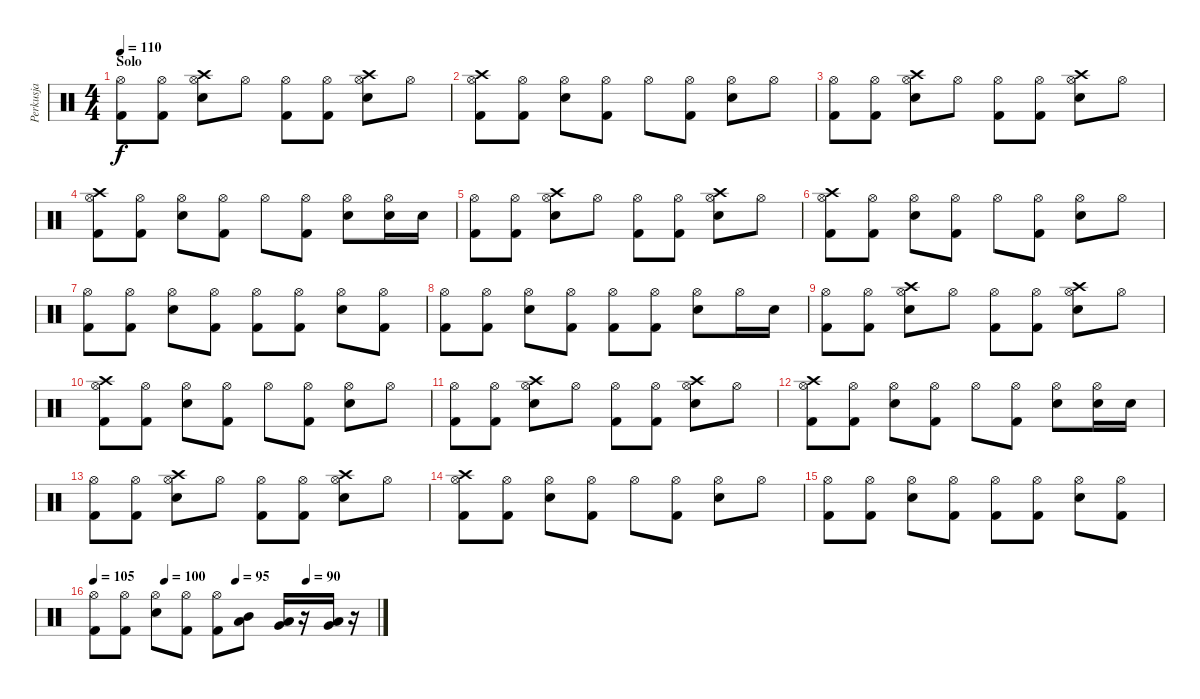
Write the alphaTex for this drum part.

\track ("Perkusja" "Perkusja") {instrument percussion}
\staff {score}
\articulation defaults
\ts (4 4)
\section ("" "Solo")
\tempo 110
\clef neutral
\ks c
("Hi-Hat (open)" "Kick (hit) 2").8{dy f} ("Hi-Hat (open)" "Kick (hit) 2").8 ("Hi-Hat (open)" "Snare (hit) 2" "Crash high (hit)").8 "Hi-Hat (open)".8 ("Hi-Hat (open)" "Kick (hit) 2").8 ("Hi-Hat (open)" "Kick (hit) 2").8 ("Hi-Hat (open)" "Snare (hit) 2" "Crash high (hit)").8 "Hi-Hat (open)".8 |
("Hi-Hat (open)" "Kick (hit) 2" "Crash high (hit)").8 ("Hi-Hat (open)" "Kick (hit) 2").8 ("Hi-Hat (open)" "Snare (hit) 2").8 ("Hi-Hat (open)" "Kick (hit) 2").8 "Hi-Hat (open)".8 ("Hi-Hat (open)" "Kick (hit) 2").8 ("Hi-Hat (open)" "Snare (hit) 2").8 "Hi-Hat (open)".8 |
("Hi-Hat (open)" "Kick (hit) 2").8 ("Hi-Hat (open)" "Kick (hit) 2").8 ("Hi-Hat (open)" "Snare (hit) 2" "Crash high (hit)").8 "Hi-Hat (open)".8 ("Hi-Hat (open)" "Kick (hit) 2").8 ("Hi-Hat (open)" "Kick (hit) 2").8 ("Hi-Hat (open)" "Snare (hit) 2" "Crash high (hit)").8 "Hi-Hat (open)".8 |
("Hi-Hat (open)" "Kick (hit) 2" "Crash high (hit)").8 ("Hi-Hat (open)" "Kick (hit) 2").8 ("Hi-Hat (open)" "Snare (hit) 2").8 ("Hi-Hat (open)" "Kick (hit) 2").8 "Hi-Hat (open)".8 ("Hi-Hat (open)" "Kick (hit) 2").8 ("Hi-Hat (open)" "Snare (hit) 2").8 ("Hi-Hat (open)" "Snare (hit) 2").16 "Snare (hit) 2".16 |
("Hi-Hat (open)" "Kick (hit) 2").8 ("Hi-Hat (open)" "Kick (hit) 2").8 ("Hi-Hat (open)" "Snare (hit) 2" "Crash high (hit)").8 "Hi-Hat (open)".8 ("Hi-Hat (open)" "Kick (hit) 2").8 ("Hi-Hat (open)" "Kick (hit) 2").8 ("Hi-Hat (open)" "Snare (hit) 2" "Crash high (hit)").8 "Hi-Hat (open)".8 |
("Hi-Hat (open)" "Kick (hit) 2" "Crash high (hit)").8 ("Hi-Hat (open)" "Kick (hit) 2").8 ("Hi-Hat (open)" "Snare (hit) 2").8 ("Hi-Hat (open)" "Kick (hit) 2").8 "Hi-Hat (open)".8 ("Hi-Hat (open)" "Kick (hit) 2").8 ("Hi-Hat (open)" "Snare (hit) 2").8 "Hi-Hat (open)".8 |
("Hi-Hat (open)" "Kick (hit) 2").8 ("Hi-Hat (open)" "Kick (hit) 2").8 ("Hi-Hat (open)" "Snare (hit) 2").8 ("Hi-Hat (open)" "Kick (hit) 2").8 ("Hi-Hat (open)" "Kick (hit) 2").8 ("Hi-Hat (open)" "Kick (hit) 2").8 ("Hi-Hat (open)" "Snare (hit) 2").8 ("Hi-Hat (open)" "Kick (hit) 2").8 |
("Hi-Hat (open)" "Kick (hit) 2").8 ("Hi-Hat (open)" "Kick (hit) 2").8 ("Hi-Hat (open)" "Snare (hit) 2").8 ("Hi-Hat (open)" "Kick (hit) 2").8 ("Hi-Hat (open)" "Kick (hit) 2").8 ("Hi-Hat (open)" "Kick (hit) 2").8 ("Hi-Hat (open)" "Snare (hit) 2").8 "Hi-Hat (open)".16 "Snare (hit) 2".16 |
("Hi-Hat (open)" "Kick (hit) 2").8 ("Hi-Hat (open)" "Kick (hit) 2").8 ("Hi-Hat (open)" "Snare (hit) 2" "Crash high (hit)").8 "Hi-Hat (open)".8 ("Hi-Hat (open)" "Kick (hit) 2").8 ("Hi-Hat (open)" "Kick (hit) 2").8 ("Hi-Hat (open)" "Snare (hit) 2" "Crash high (hit)").8 "Hi-Hat (open)".8 |
("Hi-Hat (open)" "Kick (hit) 2" "Crash high (hit)").8 ("Hi-Hat (open)" "Kick (hit) 2").8 ("Hi-Hat (open)" "Snare (hit) 2").8 ("Hi-Hat (open)" "Kick (hit) 2").8 "Hi-Hat (open)".8 ("Hi-Hat (open)" "Kick (hit) 2").8 ("Hi-Hat (open)" "Snare (hit) 2").8 "Hi-Hat (open)".8 |
("Hi-Hat (open)" "Kick (hit) 2").8 ("Hi-Hat (open)" "Kick (hit) 2").8 ("Hi-Hat (open)" "Snare (hit) 2" "Crash high (hit)").8 "Hi-Hat (open)".8 ("Hi-Hat (open)" "Kick (hit) 2").8 ("Hi-Hat (open)" "Kick (hit) 2").8 ("Hi-Hat (open)" "Snare (hit) 2" "Crash high (hit)").8 "Hi-Hat (open)".8 |
("Hi-Hat (open)" "Kick (hit) 2" "Crash high (hit)").8 ("Hi-Hat (open)" "Kick (hit) 2").8 ("Hi-Hat (open)" "Snare (hit) 2").8 ("Hi-Hat (open)" "Kick (hit) 2").8 "Hi-Hat (open)".8 ("Hi-Hat (open)" "Kick (hit) 2").8 ("Hi-Hat (open)" "Snare (hit) 2").8 ("Hi-Hat (open)" "Snare (hit) 2").16 "Snare (hit) 2".16 |
("Hi-Hat (open)" "Kick (hit) 2").8 ("Hi-Hat (open)" "Kick (hit) 2").8 ("Hi-Hat (open)" "Snare (hit) 2" "Crash high (hit)").8 "Hi-Hat (open)".8 ("Hi-Hat (open)" "Kick (hit) 2").8 ("Hi-Hat (open)" "Kick (hit) 2").8 ("Hi-Hat (open)" "Snare (hit) 2" "Crash high (hit)").8 "Hi-Hat (open)".8 |
("Hi-Hat (open)" "Kick (hit) 2" "Crash high (hit)").8 ("Hi-Hat (open)" "Kick (hit) 2").8 ("Hi-Hat (open)" "Snare (hit) 2").8 ("Hi-Hat (open)" "Kick (hit) 2").8 "Hi-Hat (open)".8 ("Hi-Hat (open)" "Kick (hit) 2").8 ("Hi-Hat (open)" "Snare (hit) 2").8 "Hi-Hat (open)".8 |
("Hi-Hat (open)" "Kick (hit) 2").8 ("Hi-Hat (open)" "Kick (hit) 2").8 ("Hi-Hat (open)" "Snare (hit) 2").8 ("Hi-Hat (open)" "Kick (hit) 2").8 ("Hi-Hat (open)" "Kick (hit) 2").8 ("Hi-Hat (open)" "Kick (hit) 2").8 ("Hi-Hat (open)" "Snare (hit) 2").8 ("Hi-Hat (open)" "Kick (hit) 2").8 |
\tempo 105
\tempo (100 0.25)
\tempo (95 0.5)
\tempo (90 0.75)
("Hi-Hat (open)" "Kick (hit) 2").8 ("Hi-Hat (open)" "Kick (hit) 2").8 ("Hi-Hat (open)" "Snare (hit) 2").8 ("Hi-Hat (open)" "Kick (hit) 2").8 ("Hi-Hat (open)" "Kick (hit) 2").8 ("Mid Tom (hit)" "Low Tom (hit)").8 ("Low Tom (hit)" "Very Low Tom (hit)").16 r.16 ("Very Low Tom (hit)" "Low Floor Tom (hit)").16 r.16
